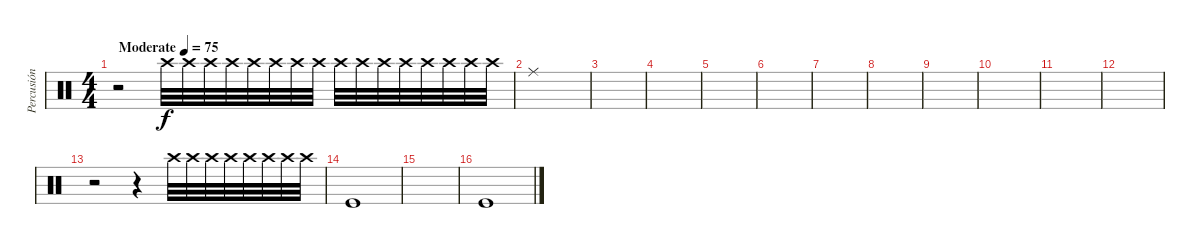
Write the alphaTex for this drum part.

\track ("Percusión" "Percusión") {instrument percussion}
\staff {score}
\articulation defaults
\ts (4 4)
\tempo (75 "Moderate")
\clef neutral
\ks c
r.2{dy f} "Crash high (hit)".32{volume 1} "Crash high (hit)".32{volume 1} "Crash high (hit)".32{volume 2} "Crash high (hit)".32{volume 2} "Crash high (hit)".32{volume 3} "Crash high (hit)".32{volume 3} "Crash high (hit)".32{volume 4} "Crash high (hit)".32{volume 4} "Crash high (hit)".32{volume 5} "Crash high (hit)".32{volume 5} "Crash high (hit)".32{volume 7} "Crash high (hit)".32{volume 7} "Crash high (hit)".32{volume 8} "Crash high (hit)".32{volume 9} "Crash high (hit)".32{volume 10} "Crash high (hit)".32 |
"Ride (middle)".1 |
|
|
|
|
|
|
|
|
|
|
r.2 r.4 "Crash high (hit)".32{volume 5} "Crash high (hit)".32{volume 5} "Crash high (hit)".32{volume 7} "Crash high (hit)".32{volume 7} "Crash high (hit)".32{volume 8} "Crash high (hit)".32{volume 9} "Crash high (hit)".32{volume 10} "Crash high (hit)".32 |
"Kick (hit)".1 |
|
"Kick (hit)".1
